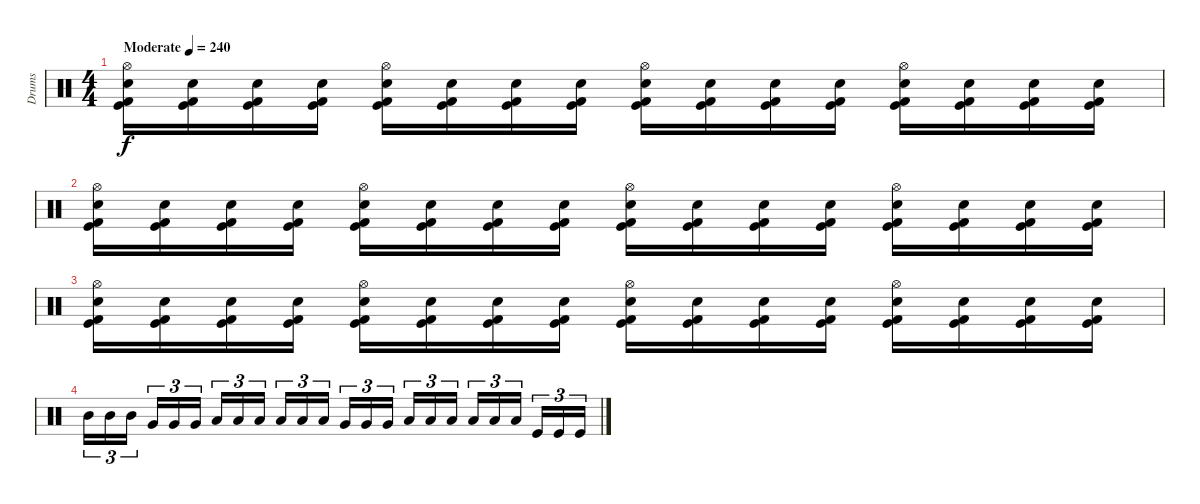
\track ("Drums" "Drums") {instrument percussion}
\staff
\articulation defaults
\ts (4 4)
\tempo (240 "Moderate")
\clef neutral
\ks c
("Hi-Hat (open)" "Kick (hit) 2" "Snare (hit) 2" "Kick (hit)").16{dy f} ("Kick (hit) 2" "Snare (hit) 2" "Kick (hit)").16 ("Kick (hit) 2" "Snare (hit) 2" "Kick (hit)").16 ("Kick (hit) 2" "Snare (hit) 2" "Kick (hit)").16 ("Hi-Hat (open)" "Kick (hit) 2" "Snare (hit) 2" "Kick (hit)").16 ("Kick (hit) 2" "Snare (hit) 2" "Kick (hit)").16 ("Kick (hit) 2" "Snare (hit) 2" "Kick (hit)").16 ("Kick (hit) 2" "Snare (hit) 2" "Kick (hit)").16 ("Hi-Hat (open)" "Kick (hit) 2" "Snare (hit) 2" "Kick (hit)").16 ("Kick (hit) 2" "Snare (hit) 2" "Kick (hit)").16 ("Kick (hit) 2" "Snare (hit) 2" "Kick (hit)").16 ("Kick (hit) 2" "Snare (hit) 2" "Kick (hit)").16 ("Hi-Hat (open)" "Kick (hit) 2" "Snare (hit) 2" "Kick (hit)").16 ("Kick (hit) 2" "Snare (hit) 2" "Kick (hit)").16 ("Kick (hit) 2" "Snare (hit) 2" "Kick (hit)").16 ("Kick (hit) 2" "Snare (hit) 2" "Kick (hit)").16 |
("Hi-Hat (open)" "Kick (hit) 2" "Snare (hit) 2" "Kick (hit)").16 ("Kick (hit) 2" "Snare (hit) 2" "Kick (hit)").16 ("Kick (hit) 2" "Snare (hit) 2" "Kick (hit)").16 ("Kick (hit) 2" "Snare (hit) 2" "Kick (hit)").16 ("Hi-Hat (open)" "Kick (hit) 2" "Snare (hit) 2" "Kick (hit)").16 ("Kick (hit) 2" "Snare (hit) 2" "Kick (hit)").16 ("Kick (hit) 2" "Snare (hit) 2" "Kick (hit)").16 ("Kick (hit) 2" "Snare (hit) 2" "Kick (hit)").16 ("Hi-Hat (open)" "Kick (hit) 2" "Snare (hit) 2" "Kick (hit)").16 ("Kick (hit) 2" "Snare (hit) 2" "Kick (hit)").16 ("Kick (hit) 2" "Snare (hit) 2" "Kick (hit)").16 ("Kick (hit) 2" "Snare (hit) 2" "Kick (hit)").16 ("Hi-Hat (open)" "Kick (hit) 2" "Snare (hit) 2" "Kick (hit)").16 ("Kick (hit) 2" "Snare (hit) 2" "Kick (hit)").16 ("Kick (hit) 2" "Snare (hit) 2" "Kick (hit)").16 ("Kick (hit) 2" "Snare (hit) 2" "Kick (hit)").16 |
("Hi-Hat (open)" "Kick (hit) 2" "Snare (hit) 2" "Kick (hit)").16 ("Kick (hit) 2" "Snare (hit) 2" "Kick (hit)").16 ("Kick (hit) 2" "Snare (hit) 2" "Kick (hit)").16 ("Kick (hit) 2" "Snare (hit) 2" "Kick (hit)").16 ("Hi-Hat (open)" "Kick (hit) 2" "Snare (hit) 2" "Kick (hit)").16 ("Kick (hit) 2" "Snare (hit) 2" "Kick (hit)").16 ("Kick (hit) 2" "Snare (hit) 2" "Kick (hit)").16 ("Kick (hit) 2" "Snare (hit) 2" "Kick (hit)").16 ("Hi-Hat (open)" "Kick (hit) 2" "Snare (hit) 2" "Kick (hit)").16 ("Kick (hit) 2" "Snare (hit) 2" "Kick (hit)").16 ("Kick (hit) 2" "Snare (hit) 2" "Kick (hit)").16 ("Kick (hit) 2" "Snare (hit) 2" "Kick (hit)").16 ("Hi-Hat (open)" "Kick (hit) 2" "Snare (hit) 2" "Kick (hit)").16 ("Kick (hit) 2" "Snare (hit) 2" "Kick (hit)").16 ("Kick (hit) 2" "Snare (hit) 2" "Kick (hit)").16 ("Kick (hit) 2" "Snare (hit) 2" "Kick (hit)").16 |
"Mid Tom (hit)".16{tu (3 2)} "Mid Tom (hit)".16{tu (3 2)} "Mid Tom (hit)".16{tu (3 2) beam splitsecondary} "Very Low Tom (hit)".16{tu (3 2)} "Very Low Tom (hit)".16{tu (3 2)} "Very Low Tom (hit)".16{tu (3 2)} "Low Tom (hit)".16{tu (3 2)} "Low Tom (hit)".16{tu (3 2)} "Low Tom (hit)".16{tu (3 2) beam splitsecondary} "Low Floor Tom (hit)".16{tu (3 2)} "Low Floor Tom (hit)".16{tu (3 2)} "Low Floor Tom (hit)".16{tu (3 2)} "Very Low Tom (hit)".16{tu (3 2)} "Very Low Tom (hit)".16{tu (3 2)} "Very Low Tom (hit)".16{tu (3 2) beam splitsecondary} "Low Tom (hit)".16{tu (3 2)} "Low Tom (hit)".16{tu (3 2)} "Low Tom (hit)".16{tu (3 2)} "Low Floor Tom (hit)".16{tu (3 2)} "Low Floor Tom (hit)".16{tu (3 2)} "Low Floor Tom (hit)".16{tu (3 2) beam splitsecondary} "Kick (hit)".16{tu (3 2)} "Kick (hit)".16{tu (3 2)} "Kick (hit)".16{tu (3 2)}
